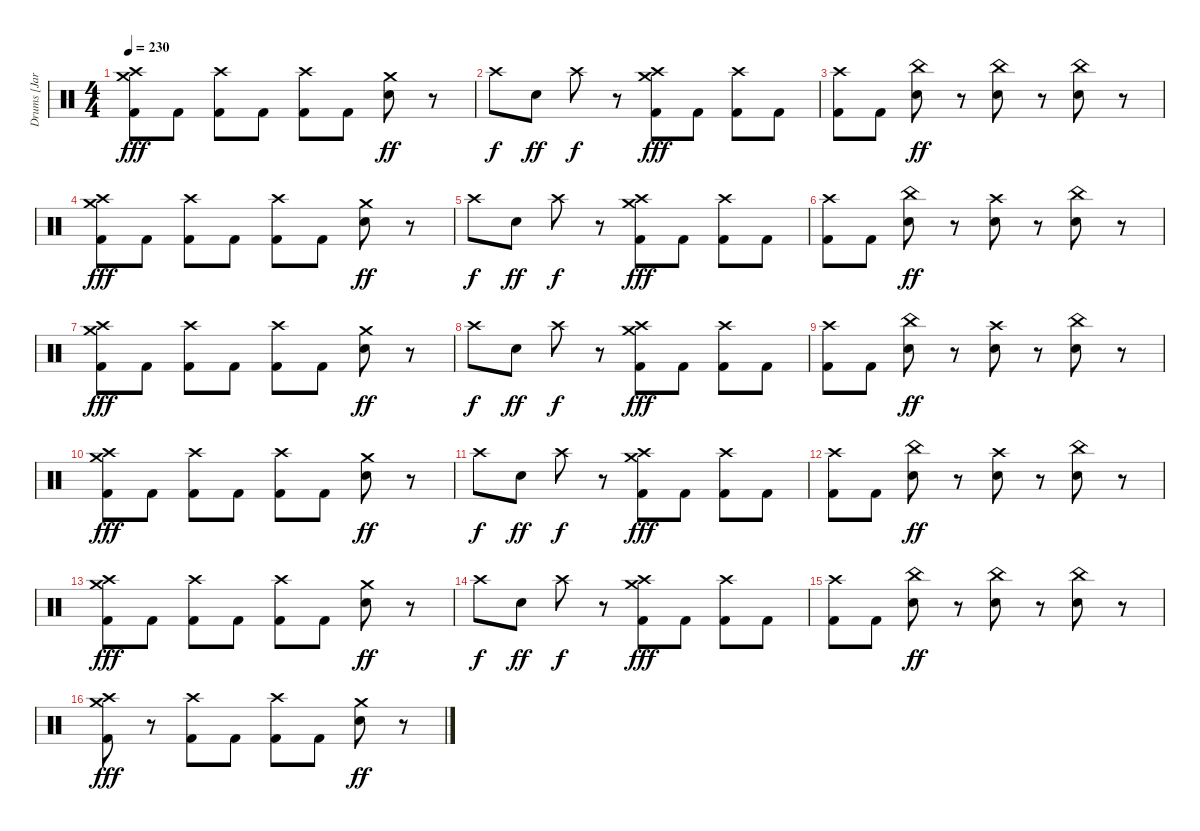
\track ("Drums [Jared]" "Drums [Jar") {instrument percussion}
\staff {score}
\articulation defaults
\ts (4 4)
\tempo 230
\clef neutral
\ks c
("Crash medium (hit)" "Crash high (hit)" "Kick (hit) 2").8{dy fff} "Kick (hit) 2".8 ("Crash high (hit)" "Kick (hit) 2").8 "Kick (hit) 2".8 ("Crash high (hit)" "Kick (hit) 2").8 "Kick (hit) 2".8 ("Crash medium (hit)" "Electric Snare (hit)").8{dy ff} r.8 |
"Crash high (hit)".8{dy f} "Electric Snare (hit)".8{dy ff} "Crash high (hit)".8{dy f} r.8 ("Crash medium (hit)" "Crash high (hit)" "Kick (hit) 2").8{dy fff} "Kick (hit) 2".8 ("Crash high (hit)" "Kick (hit) 2").8 "Kick (hit) 2".8 |
("Crash high (hit)" "Kick (hit) 2").8 "Kick (hit) 2".8 ("China (hit)" "Electric Snare (hit)").8{dy ff} r.8 ("China (hit)" "Electric Snare (hit)").8 r.8 ("China (hit)" "Electric Snare (hit)").8 r.8 |
("Crash medium (hit)" "Crash high (hit)" "Kick (hit) 2").8{dy fff} "Kick (hit) 2".8 ("Crash high (hit)" "Kick (hit) 2").8 "Kick (hit) 2".8 ("Crash high (hit)" "Kick (hit) 2").8 "Kick (hit) 2".8 ("Crash medium (hit)" "Electric Snare (hit)").8{dy ff} r.8 |
"Crash high (hit)".8{dy f} "Electric Snare (hit)".8{dy ff} "Crash high (hit)".8{dy f} r.8 ("Crash medium (hit)" "Crash high (hit)" "Kick (hit) 2").8{dy fff} "Kick (hit) 2".8 ("Crash high (hit)" "Kick (hit) 2").8 "Kick (hit) 2".8 |
("Crash high (hit)" "Kick (hit) 2").8 "Kick (hit) 2".8 ("China (hit)" "Electric Snare (hit)").8{dy ff} r.8 ("Crash high (hit)" "Electric Snare (hit)").8 r.8 ("China (hit)" "Electric Snare (hit)").8 r.8 |
("Crash medium (hit)" "Crash high (hit)" "Kick (hit) 2").8{dy fff} "Kick (hit) 2".8 ("Crash high (hit)" "Kick (hit) 2").8 "Kick (hit) 2".8 ("Crash high (hit)" "Kick (hit) 2").8 "Kick (hit) 2".8 ("Crash medium (hit)" "Electric Snare (hit)").8{dy ff} r.8 |
"Crash high (hit)".8{dy f} "Electric Snare (hit)".8{dy ff} "Crash high (hit)".8{dy f} r.8 ("Crash medium (hit)" "Crash high (hit)" "Kick (hit) 2").8{dy fff} "Kick (hit) 2".8 ("Crash high (hit)" "Kick (hit) 2").8 "Kick (hit) 2".8 |
("Crash high (hit)" "Kick (hit) 2").8 "Kick (hit) 2".8 ("China (hit)" "Electric Snare (hit)").8{dy ff} r.8 ("Crash high (hit)" "Electric Snare (hit)").8 r.8 ("China (hit)" "Electric Snare (hit)").8 r.8 |
("Crash medium (hit)" "Crash high (hit)" "Kick (hit) 2").8{dy fff} "Kick (hit) 2".8 ("Crash high (hit)" "Kick (hit) 2").8 "Kick (hit) 2".8 ("Crash high (hit)" "Kick (hit) 2").8 "Kick (hit) 2".8 ("Crash medium (hit)" "Electric Snare (hit)").8{dy ff} r.8 |
"Crash high (hit)".8{dy f} "Electric Snare (hit)".8{dy ff} "Crash high (hit)".8{dy f} r.8 ("Crash medium (hit)" "Crash high (hit)" "Kick (hit) 2").8{dy fff} "Kick (hit) 2".8 ("Crash high (hit)" "Kick (hit) 2").8 "Kick (hit) 2".8 |
("Crash high (hit)" "Kick (hit) 2").8 "Kick (hit) 2".8 ("China (hit)" "Electric Snare (hit)").8{dy ff} r.8 ("Crash high (hit)" "Electric Snare (hit)").8 r.8 ("China (hit)" "Electric Snare (hit)").8 r.8 |
("Crash medium (hit)" "Crash high (hit)" "Kick (hit) 2").8{dy fff} "Kick (hit) 2".8 ("Crash high (hit)" "Kick (hit) 2").8 "Kick (hit) 2".8 ("Crash high (hit)" "Kick (hit) 2").8 "Kick (hit) 2".8 ("Crash medium (hit)" "Electric Snare (hit)").8{dy ff} r.8 |
"Crash high (hit)".8{dy f} "Electric Snare (hit)".8{dy ff} "Crash high (hit)".8{dy f} r.8 ("Crash medium (hit)" "Crash high (hit)" "Kick (hit) 2").8{dy fff} "Kick (hit) 2".8 ("Crash high (hit)" "Kick (hit) 2").8 "Kick (hit) 2".8 |
("Crash high (hit)" "Kick (hit) 2").8 "Kick (hit) 2".8 ("China (hit)" "Electric Snare (hit)").8{dy ff} r.8 ("China (hit)" "Electric Snare (hit)").8 r.8 ("China (hit)" "Electric Snare (hit)").8 r.8 |
("Crash medium (hit)" "Crash high (hit)" "Kick (hit) 2").8{dy fff} r.8 ("Crash high (hit)" "Kick (hit) 2").8 "Kick (hit) 2".8 ("Crash high (hit)" "Kick (hit) 2").8 "Kick (hit) 2".8 ("Crash medium (hit)" "Electric Snare (hit)").8{dy ff} r.8
